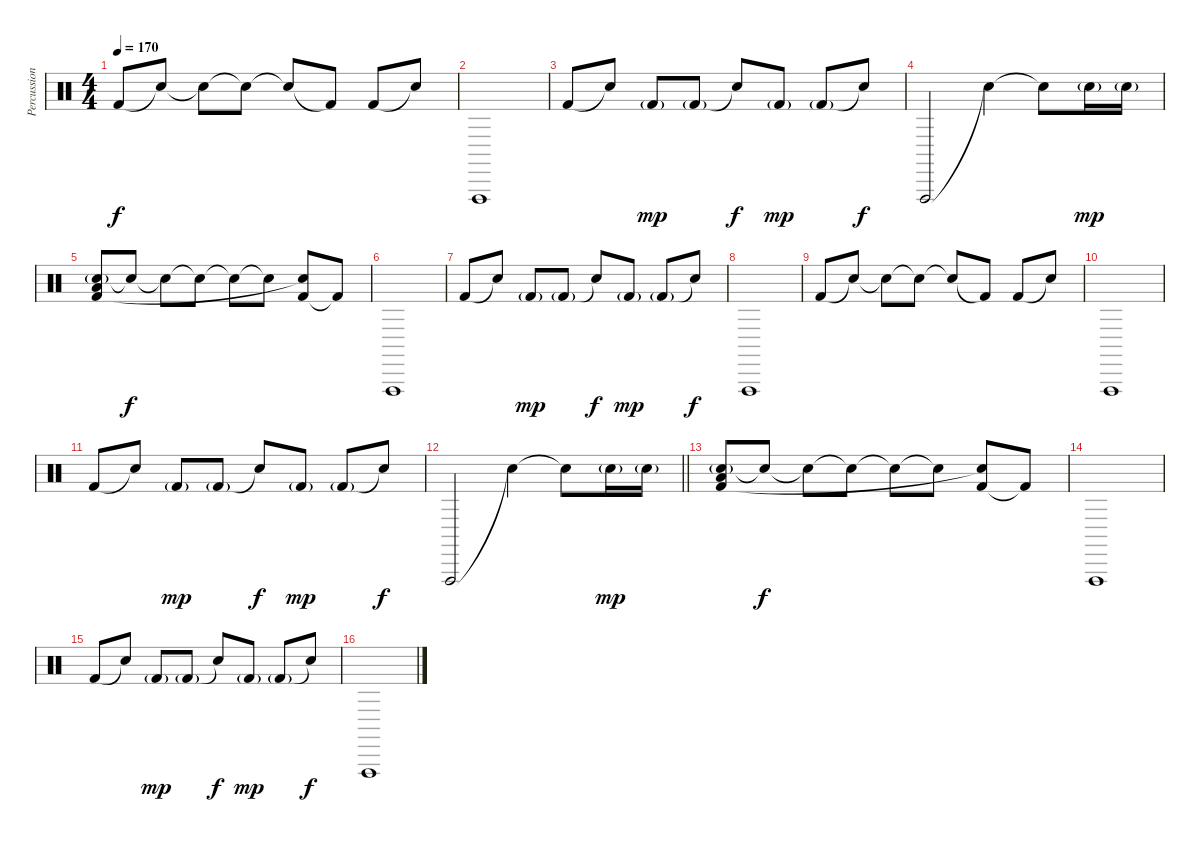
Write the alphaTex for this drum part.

\track ("Percussion" "Percussion") {instrument percussion}
\staff {score}
\articulation defaults
\ts (4 4)
\tempo 170
\clef neutral
\ks c "Kick (hit) 2".8{dy f} "Snare (hit)"{t}.8 "Snare (hit)"{t}.8 "Snare (hit)"{t}.8 "Snare (hit)"{t}.8 "Kick (hit) 2"{t}.8 "Kick (hit) 2".8 "Snare (hit)"{t}.8
|
"Vibraslap (hit)".1 |
"Kick (hit) 2".8 "Snare (hit)"{t}.8 "Kick (hit) 2"{g}.8{dy mp} "Kick (hit) 2"{g}.8 "Snare (hit)"{t}.8{dy f} "Kick (hit) 2"{g}.8{dy mp} "Kick (hit) 2"{g}.8 "Snare (hit)"{t}.8{dy f} |
"Vibraslap (hit)".2 "Snare (hit)"{t}.4 "Snare (hit)"{t}.8 "Electric Snare (hit)"{g}.16{dy mp} "Electric Snare (hit)"{g}.16 |
("Electric Snare (hit)"{g} "Kick (hit) 2" "Low Floor Tom (hit)").8 "Snare (hit)"{t}.8{dy f} "Snare (hit)"{t}.8 "Snare (hit)"{t}.8 "Snare (hit)"{t}.8 "Snare (hit)"{t}.8 ("Kick (hit) 2" "Snare (hit)"{t}).8 "Kick (hit) 2"{t}.8 |
"Vibraslap (hit)".1 |
"Kick (hit) 2".8 "Snare (hit)"{t}.8 "Kick (hit) 2"{g}.8{dy mp} "Kick (hit) 2"{g}.8 "Snare (hit)"{t}.8{dy f} "Kick (hit) 2"{g}.8{dy mp} "Kick (hit) 2"{g}.8 "Snare (hit)"{t}.8{dy f} |
"Vibraslap (hit)".1 |
"Kick (hit) 2".8 "Snare (hit)"{t}.8 "Snare (hit)"{t}.8 "Snare (hit)"{t}.8 "Snare (hit)"{t}.8 "Kick (hit) 2"{t}.8 "Kick (hit) 2".8 "Snare (hit)"{t}.8 |
"Vibraslap (hit)".1 |
"Kick (hit) 2".8 "Snare (hit)"{t}.8 "Kick (hit) 2"{g}.8{dy mp} "Kick (hit) 2"{g}.8 "Snare (hit)"{t}.8{dy f} "Kick (hit) 2"{g}.8{dy mp} "Kick (hit) 2"{g}.8 "Snare (hit)"{t}.8{dy f} |
\barLineRight lightlight "Vibraslap (hit)".2 "Snare (hit)"{t}.4 "Snare (hit)"{t}.8 "Electric Snare (hit)"{g}.16{dy mp} "Electric Snare (hit)"{g}.16
|
("Electric Snare (hit)"{g} "Kick (hit) 2" "Low Floor Tom (hit)").8 "Snare (hit)"{t}.8{dy f} "Snare (hit)"{t}.8 "Snare (hit)"{t}.8 "Snare (hit)"{t}.8 "Snare (hit)"{t}.8 ("Kick (hit) 2" "Snare (hit)"{t}).8 "Kick (hit) 2"{t}.8 |
"Vibraslap (hit)".1 |
"Kick (hit) 2".8 "Snare (hit)"{t}.8 "Kick (hit) 2"{g}.8{dy mp} "Kick (hit) 2"{g}.8 "Snare (hit)"{t}.8{dy f} "Kick (hit) 2"{g}.8{dy mp} "Kick (hit) 2"{g}.8 "Snare (hit)"{t}.8{dy f} |
"Vibraslap (hit)".1
